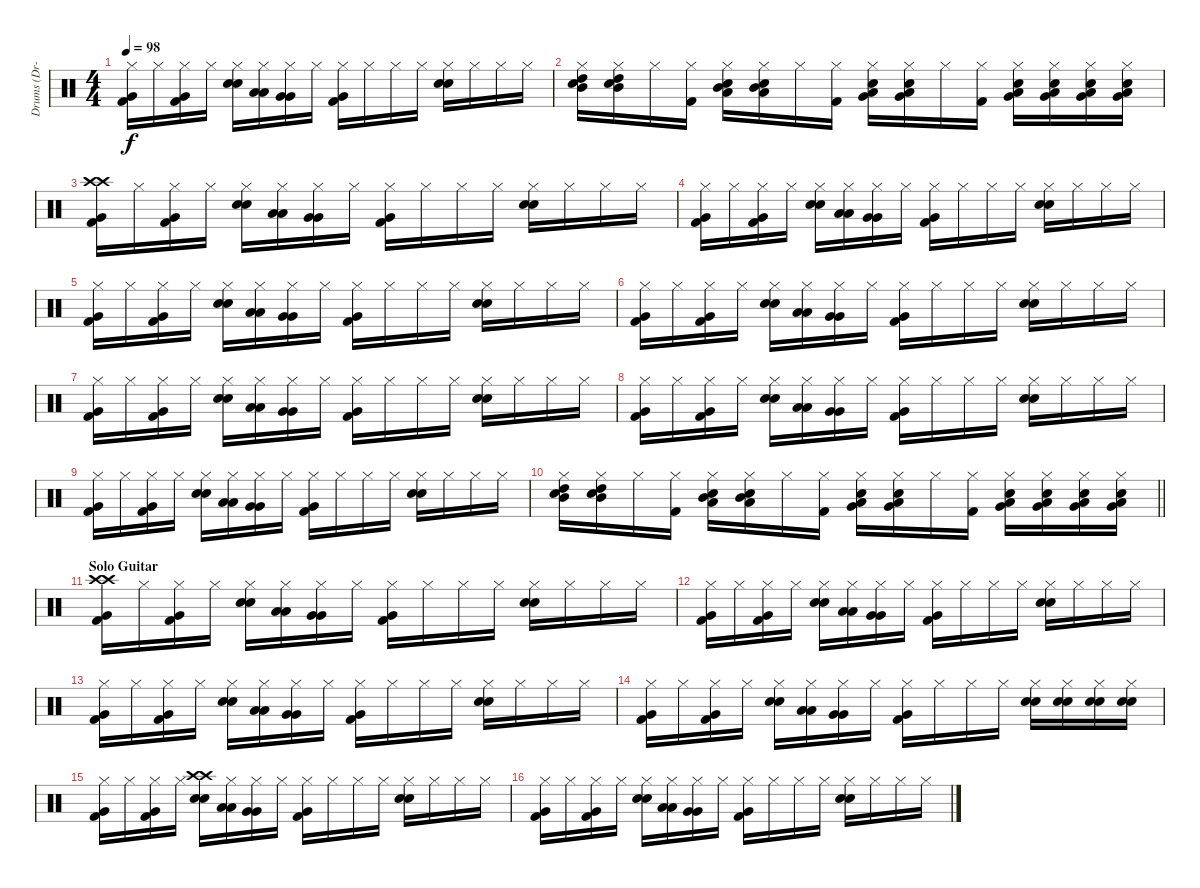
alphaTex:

\track ("Drums (Dr-0)" "Drums (Dr-") {instrument percussion}
\staff {score}
\articulation defaults
\ts (4 4)
\tempo 98
\clef neutral
\ks c
("Hi-Hat (closed)" "Very Low Tom (hit)" "Kick (hit) 2").16{dy f} "Hi-Hat (closed)".16 ("Hi-Hat (closed)" "Very Low Tom (hit)" "Kick (hit) 2").16 "Hi-Hat (closed)".16 ("Hi-Hat (closed)" "Electric Snare (hit)" "Snare (hit) 2").16 ("Hi-Hat (closed)" "Low Tom (hit)" "Low Tom (hit)").16 ("Hi-Hat (closed)" "Very Low Tom (hit)" "Very Low Tom (hit)").16 "Hi-Hat (closed)".16 ("Hi-Hat (closed)" "Very Low Tom (hit)" "Kick (hit) 2").16 "Hi-Hat (closed)".16 "Hi-Hat (closed)".16 "Hi-Hat (closed)".16 ("Hi-Hat (closed)" "Electric Snare (hit)" "Snare (hit) 2").16 "Hi-Hat (closed)".16 "Hi-Hat (closed)".16 "Hi-Hat (closed)".16 |
("Hi-Hat (closed)" "High Tom (hit)" "Mid Tom (hit)" "Electric Snare (hit)").16 ("Hi-Hat (closed)" "High Tom (hit)" "Mid Tom (hit)" "Electric Snare (hit)").16 "Hi-Hat (closed)".16 ("Hi-Hat (closed)" "Kick (hit) 2").16 ("Hi-Hat (closed)" "Mid Tom (hit)" "Low Tom (hit)" "Electric Snare (hit)").16 ("Hi-Hat (closed)" "Mid Tom (hit)" "Low Tom (hit)" "Electric Snare (hit)").16 "Hi-Hat (closed)".16 ("Hi-Hat (closed)" "Kick (hit) 2").16 ("Hi-Hat (closed)" "Low Tom (hit)" "Very Low Tom (hit)" "Electric Snare (hit)").16 ("Hi-Hat (closed)" "Low Tom (hit)" "Very Low Tom (hit)" "Electric Snare (hit)").16 "Hi-Hat (closed)".16 ("Hi-Hat (closed)" "Kick (hit) 2").16 ("Hi-Hat (closed)" "Very Low Tom (hit)" "Low Floor Tom (hit)" "Electric Snare (hit)").16 ("Hi-Hat (closed)" "Very Low Tom (hit)" "Low Floor Tom (hit)" "Electric Snare (hit)").16 ("Hi-Hat (closed)" "Very Low Tom (hit)" "Low Floor Tom (hit)" "Electric Snare (hit)").16 ("Hi-Hat (closed)" "Very Low Tom (hit)" "Low Floor Tom (hit)" "Electric Snare (hit)").16 |
("Crash high (hit)" "Crash high (hit)" "Very Low Tom (hit)" "Kick (hit) 2").16 "Hi-Hat (closed)".16 ("Hi-Hat (closed)" "Very Low Tom (hit)" "Kick (hit) 2").16 "Hi-Hat (closed)".16 ("Hi-Hat (closed)" "Electric Snare (hit)" "Snare (hit) 2").16 ("Hi-Hat (closed)" "Low Tom (hit)" "Low Tom (hit)").16 ("Hi-Hat (closed)" "Very Low Tom (hit)" "Very Low Tom (hit)").16 "Hi-Hat (closed)".16 ("Hi-Hat (closed)" "Very Low Tom (hit)" "Kick (hit) 2").16 "Hi-Hat (closed)".16 "Hi-Hat (closed)".16 "Hi-Hat (closed)".16 ("Hi-Hat (closed)" "Electric Snare (hit)" "Snare (hit) 2").16 "Hi-Hat (closed)".16 "Hi-Hat (closed)".16 "Hi-Hat (closed)".16 |
("Hi-Hat (closed)" "Very Low Tom (hit)" "Kick (hit) 2").16 "Hi-Hat (closed)".16 ("Hi-Hat (closed)" "Very Low Tom (hit)" "Kick (hit) 2").16 "Hi-Hat (closed)".16 ("Hi-Hat (closed)" "Electric Snare (hit)" "Snare (hit) 2").16 ("Hi-Hat (closed)" "Low Tom (hit)" "Low Tom (hit)").16 ("Hi-Hat (closed)" "Very Low Tom (hit)" "Very Low Tom (hit)").16 "Hi-Hat (closed)".16 ("Hi-Hat (closed)" "Very Low Tom (hit)" "Kick (hit) 2").16 "Hi-Hat (closed)".16 "Hi-Hat (closed)".16 "Hi-Hat (closed)".16 ("Hi-Hat (closed)" "Electric Snare (hit)" "Snare (hit) 2").16 "Hi-Hat (closed)".16 "Hi-Hat (closed)".16 "Hi-Hat (closed)".16 |
("Hi-Hat (closed)" "Very Low Tom (hit)" "Kick (hit) 2").16 "Hi-Hat (closed)".16 ("Hi-Hat (closed)" "Very Low Tom (hit)" "Kick (hit) 2").16 "Hi-Hat (closed)".16 ("Hi-Hat (closed)" "Electric Snare (hit)" "Snare (hit) 2").16 ("Hi-Hat (closed)" "Low Tom (hit)" "Low Tom (hit)").16 ("Hi-Hat (closed)" "Very Low Tom (hit)" "Very Low Tom (hit)").16 "Hi-Hat (closed)".16 ("Hi-Hat (closed)" "Very Low Tom (hit)" "Kick (hit) 2").16 "Hi-Hat (closed)".16 "Hi-Hat (closed)".16 "Hi-Hat (closed)".16 ("Hi-Hat (closed)" "Electric Snare (hit)" "Snare (hit) 2").16 "Hi-Hat (closed)".16 "Hi-Hat (closed)".16 "Hi-Hat (closed)".16 |
("Hi-Hat (closed)" "Very Low Tom (hit)" "Kick (hit) 2").16 "Hi-Hat (closed)".16 ("Hi-Hat (closed)" "Very Low Tom (hit)" "Kick (hit) 2").16 "Hi-Hat (closed)".16 ("Hi-Hat (closed)" "Electric Snare (hit)" "Snare (hit) 2").16 ("Hi-Hat (closed)" "Low Tom (hit)" "Low Tom (hit)").16 ("Hi-Hat (closed)" "Very Low Tom (hit)" "Very Low Tom (hit)").16 "Hi-Hat (closed)".16 ("Hi-Hat (closed)" "Very Low Tom (hit)" "Kick (hit) 2").16 "Hi-Hat (closed)".16 "Hi-Hat (closed)".16 "Hi-Hat (closed)".16 ("Hi-Hat (closed)" "Electric Snare (hit)" "Snare (hit) 2").16 "Hi-Hat (closed)".16 "Hi-Hat (closed)".16 "Hi-Hat (closed)".16 |
("Hi-Hat (closed)" "Very Low Tom (hit)" "Kick (hit) 2").16 "Hi-Hat (closed)".16 ("Hi-Hat (closed)" "Very Low Tom (hit)" "Kick (hit) 2").16 "Hi-Hat (closed)".16 ("Hi-Hat (closed)" "Electric Snare (hit)" "Snare (hit) 2").16 ("Hi-Hat (closed)" "Low Tom (hit)" "Low Tom (hit)").16 ("Hi-Hat (closed)" "Very Low Tom (hit)" "Very Low Tom (hit)").16 "Hi-Hat (closed)".16 ("Hi-Hat (closed)" "Very Low Tom (hit)" "Kick (hit) 2").16 "Hi-Hat (closed)".16 "Hi-Hat (closed)".16 "Hi-Hat (closed)".16 ("Hi-Hat (closed)" "Electric Snare (hit)" "Snare (hit) 2").16 "Hi-Hat (closed)".16 "Hi-Hat (closed)".16 "Hi-Hat (closed)".16 |
("Hi-Hat (closed)" "Very Low Tom (hit)" "Kick (hit) 2").16 "Hi-Hat (closed)".16 ("Hi-Hat (closed)" "Very Low Tom (hit)" "Kick (hit) 2").16 "Hi-Hat (closed)".16 ("Hi-Hat (closed)" "Electric Snare (hit)" "Snare (hit) 2").16 ("Hi-Hat (closed)" "Low Tom (hit)" "Low Tom (hit)").16 ("Hi-Hat (closed)" "Very Low Tom (hit)" "Very Low Tom (hit)").16 "Hi-Hat (closed)".16 ("Hi-Hat (closed)" "Very Low Tom (hit)" "Kick (hit) 2").16 "Hi-Hat (closed)".16 "Hi-Hat (closed)".16 "Hi-Hat (closed)".16 ("Hi-Hat (closed)" "Electric Snare (hit)" "Snare (hit) 2").16 "Hi-Hat (closed)".16 "Hi-Hat (closed)".16 "Hi-Hat (closed)".16 |
("Hi-Hat (closed)" "Very Low Tom (hit)" "Kick (hit) 2").16 "Hi-Hat (closed)".16 ("Hi-Hat (closed)" "Very Low Tom (hit)" "Kick (hit) 2").16 "Hi-Hat (closed)".16 ("Hi-Hat (closed)" "Electric Snare (hit)" "Snare (hit) 2").16 ("Hi-Hat (closed)" "Low Tom (hit)" "Low Tom (hit)").16 ("Hi-Hat (closed)" "Very Low Tom (hit)" "Very Low Tom (hit)").16 "Hi-Hat (closed)".16 ("Hi-Hat (closed)" "Very Low Tom (hit)" "Kick (hit) 2").16 "Hi-Hat (closed)".16 "Hi-Hat (closed)".16 "Hi-Hat (closed)".16 ("Hi-Hat (closed)" "Electric Snare (hit)" "Snare (hit) 2").16 "Hi-Hat (closed)".16 "Hi-Hat (closed)".16 "Hi-Hat (closed)".16 |
\barLineRight lightlight
("Hi-Hat (closed)" "High Tom (hit)" "Mid Tom (hit)" "Electric Snare (hit)").16 ("Hi-Hat (closed)" "High Tom (hit)" "Mid Tom (hit)" "Electric Snare (hit)").16 "Hi-Hat (closed)".16 ("Hi-Hat (closed)" "Kick (hit) 2").16 ("Hi-Hat (closed)" "Mid Tom (hit)" "Low Tom (hit)" "Electric Snare (hit)").16 ("Hi-Hat (closed)" "Mid Tom (hit)" "Low Tom (hit)" "Electric Snare (hit)").16 "Hi-Hat (closed)".16 ("Hi-Hat (closed)" "Kick (hit) 2").16 ("Hi-Hat (closed)" "Low Tom (hit)" "Very Low Tom (hit)" "Electric Snare (hit)").16 ("Hi-Hat (closed)" "Low Tom (hit)" "Very Low Tom (hit)" "Electric Snare (hit)").16 "Hi-Hat (closed)".16 ("Hi-Hat (closed)" "Kick (hit) 2").16 ("Hi-Hat (closed)" "Very Low Tom (hit)" "Low Floor Tom (hit)" "Electric Snare (hit)").16 ("Hi-Hat (closed)" "Very Low Tom (hit)" "Low Floor Tom (hit)" "Electric Snare (hit)").16 ("Hi-Hat (closed)" "Very Low Tom (hit)" "Low Floor Tom (hit)" "Electric Snare (hit)").16 ("Hi-Hat (closed)" "Very Low Tom (hit)" "Low Floor Tom (hit)" "Electric Snare (hit)").16 |
\section ("" "Solo Guitar")
("Crash high (hit)" "Crash high (hit)" "Very Low Tom (hit)" "Kick (hit) 2").16 "Hi-Hat (closed)".16 ("Hi-Hat (closed)" "Very Low Tom (hit)" "Kick (hit) 2").16 "Hi-Hat (closed)".16 ("Hi-Hat (closed)" "Electric Snare (hit)" "Snare (hit) 2").16 ("Hi-Hat (closed)" "Low Tom (hit)" "Low Tom (hit)").16 ("Hi-Hat (closed)" "Very Low Tom (hit)" "Very Low Tom (hit)").16 "Hi-Hat (closed)".16 ("Hi-Hat (closed)" "Very Low Tom (hit)" "Kick (hit) 2").16 "Hi-Hat (closed)".16 "Hi-Hat (closed)".16 "Hi-Hat (closed)".16 ("Hi-Hat (closed)" "Electric Snare (hit)" "Snare (hit) 2").16 "Hi-Hat (closed)".16 "Hi-Hat (closed)".16 "Hi-Hat (closed)".16 |
("Hi-Hat (closed)" "Very Low Tom (hit)" "Kick (hit) 2").16 "Hi-Hat (closed)".16 ("Hi-Hat (closed)" "Very Low Tom (hit)" "Kick (hit) 2").16 "Hi-Hat (closed)".16 ("Hi-Hat (closed)" "Electric Snare (hit)" "Snare (hit) 2").16 ("Hi-Hat (closed)" "Low Tom (hit)" "Low Tom (hit)").16 ("Hi-Hat (closed)" "Very Low Tom (hit)" "Very Low Tom (hit)").16 "Hi-Hat (closed)".16 ("Hi-Hat (closed)" "Very Low Tom (hit)" "Kick (hit) 2").16 "Hi-Hat (closed)".16 "Hi-Hat (closed)".16 "Hi-Hat (closed)".16 ("Hi-Hat (closed)" "Electric Snare (hit)" "Snare (hit) 2").16 "Hi-Hat (closed)".16 "Hi-Hat (closed)".16 "Hi-Hat (closed)".16 |
("Hi-Hat (closed)" "Very Low Tom (hit)" "Kick (hit) 2").16 "Hi-Hat (closed)".16 ("Hi-Hat (closed)" "Very Low Tom (hit)" "Kick (hit) 2").16 "Hi-Hat (closed)".16 ("Hi-Hat (closed)" "Electric Snare (hit)" "Snare (hit) 2").16 ("Hi-Hat (closed)" "Low Tom (hit)" "Low Tom (hit)").16 ("Hi-Hat (closed)" "Very Low Tom (hit)" "Very Low Tom (hit)").16 "Hi-Hat (closed)".16 ("Hi-Hat (closed)" "Very Low Tom (hit)" "Kick (hit) 2").16 "Hi-Hat (closed)".16 "Hi-Hat (closed)".16 "Hi-Hat (closed)".16 ("Hi-Hat (closed)" "Electric Snare (hit)" "Snare (hit) 2").16 "Hi-Hat (closed)".16 "Hi-Hat (closed)".16 "Hi-Hat (closed)".16 |
("Hi-Hat (closed)" "Very Low Tom (hit)" "Kick (hit) 2").16 "Hi-Hat (closed)".16 ("Hi-Hat (closed)" "Very Low Tom (hit)" "Kick (hit) 2").16 "Hi-Hat (closed)".16 ("Hi-Hat (closed)" "Electric Snare (hit)" "Snare (hit) 2").16 ("Hi-Hat (closed)" "Low Tom (hit)" "Low Tom (hit)").16 ("Hi-Hat (closed)" "Very Low Tom (hit)" "Very Low Tom (hit)").16 "Hi-Hat (closed)".16 ("Hi-Hat (closed)" "Very Low Tom (hit)" "Kick (hit) 2").16 "Hi-Hat (closed)".16 "Hi-Hat (closed)".16 "Hi-Hat (closed)".16 ("Hi-Hat (closed)" "Electric Snare (hit)" "Snare (hit) 2").16 ("Hi-Hat (closed)" "Electric Snare (hit)" "Snare (hit) 2").16 ("Hi-Hat (closed)" "Electric Snare (hit)" "Snare (hit) 2").16 ("Hi-Hat (closed)" "Electric Snare (hit)" "Snare (hit) 2").16 |
("Hi-Hat (closed)" "Very Low Tom (hit)" "Kick (hit) 2").16 "Hi-Hat (closed)".16 ("Hi-Hat (closed)" "Very Low Tom (hit)" "Kick (hit) 2").16 "Hi-Hat (closed)".16 ("Crash high (hit)" "Crash high (hit)" "Electric Snare (hit)" "Snare (hit) 2").16 ("Hi-Hat (closed)" "Low Tom (hit)" "Low Tom (hit)").16 ("Hi-Hat (closed)" "Very Low Tom (hit)" "Very Low Tom (hit)").16 "Hi-Hat (closed)".16 ("Hi-Hat (closed)" "Very Low Tom (hit)" "Kick (hit) 2").16 "Hi-Hat (closed)".16 "Hi-Hat (closed)".16 "Hi-Hat (closed)".16 ("Hi-Hat (closed)" "Electric Snare (hit)" "Snare (hit) 2").16 "Hi-Hat (closed)".16 "Hi-Hat (closed)".16 "Hi-Hat (closed)".16 |
("Hi-Hat (closed)" "Very Low Tom (hit)" "Kick (hit) 2").16 "Hi-Hat (closed)".16 ("Hi-Hat (closed)" "Very Low Tom (hit)" "Kick (hit) 2").16 "Hi-Hat (closed)".16 ("Hi-Hat (closed)" "Electric Snare (hit)" "Snare (hit) 2").16 ("Hi-Hat (closed)" "Low Tom (hit)" "Low Tom (hit)").16 ("Hi-Hat (closed)" "Very Low Tom (hit)" "Very Low Tom (hit)").16 "Hi-Hat (closed)".16 ("Hi-Hat (closed)" "Very Low Tom (hit)" "Kick (hit) 2").16 "Hi-Hat (closed)".16 "Hi-Hat (closed)".16 "Hi-Hat (closed)".16 ("Hi-Hat (closed)" "Electric Snare (hit)" "Snare (hit) 2").16 "Hi-Hat (closed)".16 "Hi-Hat (closed)".16 "Hi-Hat (closed)".16
